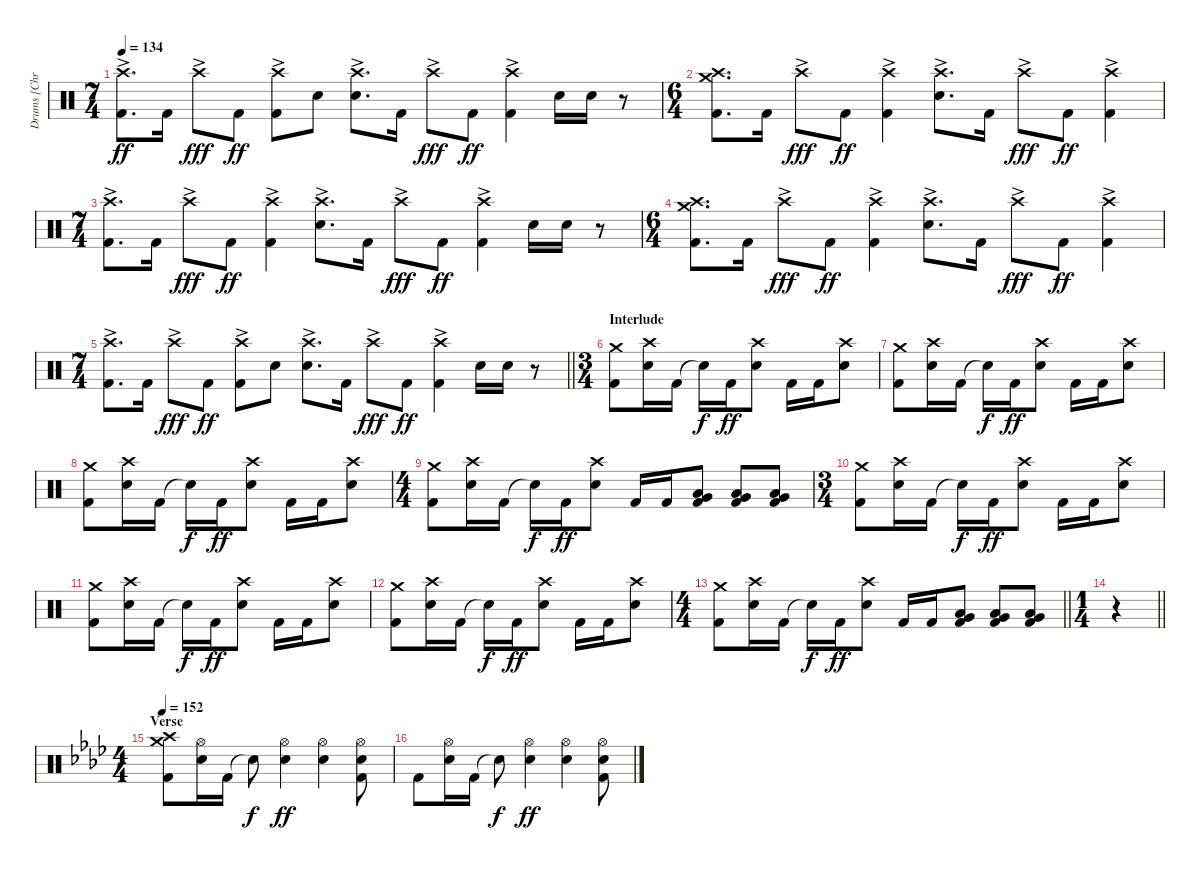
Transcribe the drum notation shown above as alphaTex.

\track ("Drums [Chris Hornbrook]" "Drums [Chr") {instrument percussion}
\staff {score}
\articulation defaults
\ts (7 4)
\tempo 134
\clef neutral
\ks c
("Crash high (hit)"{ac} "Kick (hit) 2").8{d dy ff} "Kick (hit) 2".16 "Crash high (hit)"{ac}.8{dy fff} "Kick (hit) 2".8{dy ff} ("Crash high (hit)"{ac} "Kick (hit) 2").8 "Electric Snare (hit)".8 ("Crash high (hit)"{ac} "Electric Snare (hit)").8{d} "Kick (hit) 2".16 "Crash high (hit)"{ac}.8{dy fff} "Kick (hit) 2".8{dy ff} ("Crash high (hit)"{ac} "Kick (hit) 2").4 "Electric Snare (hit)".16 "Electric Snare (hit)".16 r.8{volume 0} |
\ts (6 4)
("Crash medium (hit)" "Crash high (hit)" "Kick (hit) 2").8{d volume 14} "Kick (hit) 2".16 "Crash high (hit)"{ac}.8{dy fff} "Kick (hit) 2".8{dy ff} ("Crash high (hit)"{ac} "Kick (hit) 2").4 ("Crash high (hit)"{ac} "Electric Snare (hit)").8{d} "Kick (hit) 2".16 "Crash high (hit)"{ac}.8{dy fff} "Kick (hit) 2".8{dy ff} ("Crash high (hit)"{ac} "Kick (hit) 2").4 |
\ts (7 4)
("Crash high (hit)"{ac} "Kick (hit) 2").8{d} "Kick (hit) 2".16 "Crash high (hit)"{ac}.8{dy fff} "Kick (hit) 2".8{dy ff} ("Crash high (hit)"{ac} "Kick (hit) 2").4 ("Crash high (hit)"{ac} "Electric Snare (hit)").8{d} "Kick (hit) 2".16 "Crash high (hit)"{ac}.8{dy fff} "Kick (hit) 2".8{dy ff} ("Crash high (hit)"{ac} "Kick (hit) 2").4 "Electric Snare (hit)".16 "Electric Snare (hit)".16 r.8{volume 0} |
\ts (6 4)
("Crash medium (hit)" "Crash high (hit)" "Kick (hit) 2").8{d volume 14} "Kick (hit) 2".16 "Crash high (hit)"{ac}.8{dy fff} "Kick (hit) 2".8{dy ff} ("Crash high (hit)"{ac} "Kick (hit) 2").4 ("Crash high (hit)"{ac} "Electric Snare (hit)").8{d} "Kick (hit) 2".16 "Crash high (hit)"{ac}.8{dy fff} "Kick (hit) 2".8{dy ff} ("Crash high (hit)"{ac} "Kick (hit) 2").4 |
\ts (7 4)
\barLineRight lightlight
("Crash high (hit)"{ac} "Kick (hit) 2").8{d} "Kick (hit) 2".16 "Crash high (hit)"{ac}.8{dy fff} "Kick (hit) 2".8{dy ff} ("Crash high (hit)"{ac} "Kick (hit) 2").8 "Electric Snare (hit)".8 ("Crash high (hit)"{ac} "Electric Snare (hit)").8{d} "Kick (hit) 2".16 "Crash high (hit)"{ac}.8{dy fff} "Kick (hit) 2".8{dy ff} ("Crash high (hit)"{ac} "Kick (hit) 2").4 "Electric Snare (hit)".16 "Electric Snare (hit)".16 r.8{volume 0} |
\ts (3 4)
\section ("" "Interlude")
\ks aminor
("Crash medium (hit)" "Kick (hit) 2").8{volume 14} ("Crash high (hit)" "Electric Snare (hit)").16 "Kick (hit) 2".16 "Snare (hit)"{t}.16{dy f} "Kick (hit) 2".16{dy ff} ("Crash high (hit)" "Electric Snare (hit)").8 "Kick (hit) 2".16 "Kick (hit) 2".16 ("Crash high (hit)" "Electric Snare (hit)").8 |
("Crash medium (hit)" "Kick (hit) 2").8 ("Crash high (hit)" "Electric Snare (hit)").16 "Kick (hit) 2".16 "Snare (hit)"{t}.16{dy f} "Kick (hit) 2".16{dy ff} ("Crash high (hit)" "Electric Snare (hit)").8 "Kick (hit) 2".16 "Kick (hit) 2".16 ("Crash high (hit)" "Electric Snare (hit)").8 |
("Crash medium (hit)" "Kick (hit) 2").8 ("Crash high (hit)" "Electric Snare (hit)").16 "Kick (hit) 2".16 "Snare (hit)"{t}.16{dy f} "Kick (hit) 2".16{dy ff} ("Crash high (hit)" "Electric Snare (hit)").8 "Kick (hit) 2".16 "Kick (hit) 2".16 ("Crash high (hit)" "Electric Snare (hit)").8 |
\ts (4 4)
("Crash medium (hit)" "Kick (hit) 2").8 ("Crash high (hit)" "Electric Snare (hit)").16 "Kick (hit) 2".16 "Snare (hit)"{t}.16{dy f} "Kick (hit) 2".16{dy ff} ("Crash high (hit)" "Electric Snare (hit)").8 "Kick (hit) 2".16 "Kick (hit) 2".16 ("Very Low Tom (hit)" "Low Floor Tom (hit)" "Kick (hit) 2").8 ("Very Low Tom (hit)" "Low Floor Tom (hit)" "Kick (hit) 2").8 ("Very Low Tom (hit)" "Low Floor Tom (hit)" "Kick (hit) 2").8 |
\ts (3 4)
("Crash medium (hit)" "Kick (hit) 2").8 ("Crash high (hit)" "Electric Snare (hit)").16 "Kick (hit) 2".16 "Snare (hit)"{t}.16{dy f} "Kick (hit) 2".16{dy ff} ("Crash high (hit)" "Electric Snare (hit)").8 "Kick (hit) 2".16 "Kick (hit) 2".16 ("Crash high (hit)" "Electric Snare (hit)").8 |
("Crash medium (hit)" "Kick (hit) 2").8 ("Crash high (hit)" "Electric Snare (hit)").16 "Kick (hit) 2".16 "Snare (hit)"{t}.16{dy f} "Kick (hit) 2".16{dy ff} ("Crash high (hit)" "Electric Snare (hit)").8 "Kick (hit) 2".16 "Kick (hit) 2".16 ("Crash high (hit)" "Electric Snare (hit)").8 |
("Crash medium (hit)" "Kick (hit) 2").8 ("Crash high (hit)" "Electric Snare (hit)").16 "Kick (hit) 2".16 "Snare (hit)"{t}.16{dy f} "Kick (hit) 2".16{dy ff} ("Crash high (hit)" "Electric Snare (hit)").8 "Kick (hit) 2".16 "Kick (hit) 2".16 ("Crash high (hit)" "Electric Snare (hit)").8 |
\ts (4 4)
\barLineRight lightlight
("Crash medium (hit)" "Kick (hit) 2").8 ("Crash high (hit)" "Electric Snare (hit)").16 "Kick (hit) 2".16 "Snare (hit)"{t}.16{dy f} "Kick (hit) 2".16{dy ff} ("Crash high (hit)" "Electric Snare (hit)").8 "Kick (hit) 2".16 "Kick (hit) 2".16 ("Very Low Tom (hit)" "Low Floor Tom (hit)" "Kick (hit) 2").8 ("Very Low Tom (hit)" "Low Floor Tom (hit)" "Kick (hit) 2").8 ("Very Low Tom (hit)" "Low Floor Tom (hit)" "Kick (hit) 2").8 |
\ts (1 4)
\section ("" "")
\barLineRight lightlight
r.4 |
\ts (4 4)
\section ("" "Verse")
\tempo 152
\ks fminor
("Crash medium (hit)" "Crash high (hit)" "Kick (hit) 2").8 ("Hi-Hat (open)" "Electric Snare (hit)").16 "Kick (hit) 2".16 "Snare (hit)"{t}.8{dy f} ("Hi-Hat (open)" "Electric Snare (hit)").4{dy ff} ("Hi-Hat (open)" "Electric Snare (hit)").4 ("Hi-Hat (open)" "Electric Snare (hit)" "Kick (hit) 2").8 |
"Kick (hit) 2".8 ("Hi-Hat (open)" "Electric Snare (hit)").16 "Kick (hit) 2".16 "Snare (hit)"{t}.8{dy f} ("Hi-Hat (open)" "Electric Snare (hit)").4{dy ff} ("Hi-Hat (open)" "Electric Snare (hit)").4 ("Hi-Hat (open)" "Electric Snare (hit)" "Kick (hit) 2").8
